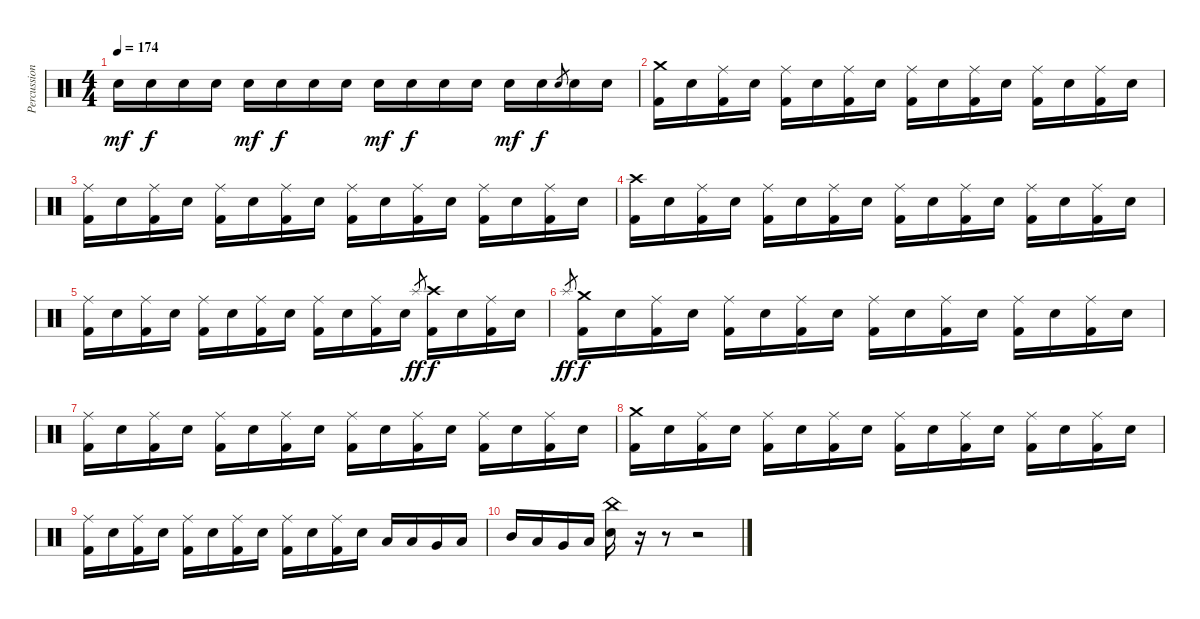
\track ("Percussion" "Percussion") {instrument percussion}
\staff {score}
\articulation defaults
\ts (4 4)
\tempo 174
\clef neutral
\ks c "Electric Snare (hit)".16{dy mf} "Electric Snare (hit)".16{dy f} "Electric Snare (hit)".16 "Electric Snare (hit)".16 "Electric Snare (hit)".16{dy mf} "Electric Snare (hit)".16{dy f} "Electric Snare (hit)".16 "Electric Snare (hit)".16 "Electric Snare (hit)".16{dy mf} "Electric Snare (hit)".16{dy f} "Electric Snare (hit)".16 "Electric Snare (hit)".16 "Electric Snare (hit)".16{dy mf} "Electric Snare (hit)".16{dy f} "Electric Snare (hit)".8{gr} "Electric Snare (hit)".16 "Electric Snare (hit)".16
|
("Crash medium (hit)" "Kick (hit) 2").16 "Electric Snare (hit)".16 ("Ride (middle)" "Kick (hit) 2").16 "Electric Snare (hit)".16 ("Ride (middle)" "Kick (hit) 2").16 "Electric Snare (hit)".16 ("Ride (middle)" "Kick (hit) 2").16 "Electric Snare (hit)".16 ("Ride (middle)" "Kick (hit) 2").16 "Electric Snare (hit)".16 ("Ride (middle)" "Kick (hit) 2").16 "Electric Snare (hit)".16 ("Ride (middle)" "Kick (hit) 2").16 "Electric Snare (hit)".16 ("Ride (middle)" "Kick (hit) 2").16 "Electric Snare (hit)".16 |
("Ride (middle)" "Kick (hit) 2").16 "Electric Snare (hit)".16 ("Ride (middle)" "Kick (hit) 2").16 "Electric Snare (hit)".16 ("Ride (middle)" "Kick (hit) 2").16 "Electric Snare (hit)".16 ("Ride (middle)" "Kick (hit) 2").16 "Electric Snare (hit)".16 ("Ride (middle)" "Kick (hit) 2").16 "Electric Snare (hit)".16 ("Ride (middle)" "Kick (hit) 2").16 "Electric Snare (hit)".16 ("Ride (middle)" "Kick (hit) 2").16 "Electric Snare (hit)".16 ("Ride (middle)" "Kick (hit) 2").16 "Electric Snare (hit)".16 |
("Crash high (hit)" "Kick (hit) 2").16 "Electric Snare (hit)".16 ("Ride (middle)" "Kick (hit) 2").16 "Electric Snare (hit)".16 ("Ride (middle)" "Kick (hit) 2").16 "Electric Snare (hit)".16 ("Ride (middle)" "Kick (hit) 2").16 "Electric Snare (hit)".16 ("Ride (middle)" "Kick (hit) 2").16 "Electric Snare (hit)".16 ("Ride (middle)" "Kick (hit) 2").16 "Electric Snare (hit)".16 ("Ride (middle)" "Kick (hit) 2").16 "Electric Snare (hit)".16 ("Ride (middle)" "Kick (hit) 2").16 "Electric Snare (hit)".16 |
("Ride (middle)" "Kick (hit) 2").16 "Electric Snare (hit)".16 ("Ride (middle)" "Kick (hit) 2").16 "Electric Snare (hit)".16 ("Ride (middle)" "Kick (hit) 2").16 "Electric Snare (hit)".16 ("Ride (middle)" "Kick (hit) 2").16 "Electric Snare (hit)".16 ("Ride (middle)" "Kick (hit) 2").16 "Electric Snare (hit)".16 ("Ride (middle)" "Kick (hit) 2").16 "Electric Snare (hit)".16 "Splash (hit)".8{gr dy ff} ("Crash high (hit)" "Kick (hit) 2").16{dy f} "Electric Snare (hit)".16 ("Ride (middle)" "Kick (hit) 2").16 "Electric Snare (hit)".16 |
"Splash (hit)".8{gr dy ff} ("Crash medium (hit)" "Kick (hit) 2").16{dy f} "Electric Snare (hit)".16 ("Ride (middle)" "Kick (hit) 2").16 "Electric Snare (hit)".16 ("Ride (middle)" "Kick (hit) 2").16 "Electric Snare (hit)".16 ("Ride (middle)" "Kick (hit) 2").16 "Electric Snare (hit)".16 ("Ride (middle)" "Kick (hit) 2").16 "Electric Snare (hit)".16 ("Ride (middle)" "Kick (hit) 2").16 "Electric Snare (hit)".16 ("Ride (middle)" "Kick (hit) 2").16 "Electric Snare (hit)".16 ("Ride (middle)" "Kick (hit) 2").16 "Electric Snare (hit)".16 |
("Ride (middle)" "Kick (hit) 2").16 "Electric Snare (hit)".16 ("Ride (middle)" "Kick (hit) 2").16 "Electric Snare (hit)".16 ("Ride (middle)" "Kick (hit) 2").16 "Electric Snare (hit)".16 ("Ride (middle)" "Kick (hit) 2").16 "Electric Snare (hit)".16 ("Ride (middle)" "Kick (hit) 2").16 "Electric Snare (hit)".16 ("Ride (middle)" "Kick (hit) 2").16 "Electric Snare (hit)".16 ("Ride (middle)" "Kick (hit) 2").16 "Electric Snare (hit)".16 ("Ride (middle)" "Kick (hit) 2").16 "Electric Snare (hit)".16 |
("Crash medium (hit)" "Kick (hit) 2").16 "Electric Snare (hit)".16 ("Ride (middle)" "Kick (hit) 2").16 "Electric Snare (hit)".16 ("Ride (middle)" "Kick (hit) 2").16 "Electric Snare (hit)".16 ("Ride (middle)" "Kick (hit) 2").16 "Electric Snare (hit)".16 ("Ride (middle)" "Kick (hit) 2").16 "Electric Snare (hit)".16 ("Ride (middle)" "Kick (hit) 2").16 "Electric Snare (hit)".16 ("Ride (middle)" "Kick (hit) 2").16 "Electric Snare (hit)".16 ("Ride (middle)" "Kick (hit) 2").16 "Electric Snare (hit)".16 |
("Ride (middle)" "Kick (hit) 2").16 "Electric Snare (hit)".16 ("Ride (middle)" "Kick (hit) 2").16 "Electric Snare (hit)".16 ("Ride (middle)" "Kick (hit) 2").16 "Electric Snare (hit)".16 ("Ride (middle)" "Kick (hit) 2").16 "Electric Snare (hit)".16 ("Ride (middle)" "Kick (hit) 2").16 "Electric Snare (hit)".16 ("Ride (middle)" "Kick (hit) 2").16 "Electric Snare (hit)".16 "Low Tom (hit)".16 "Low Tom (hit)".16 "Very Low Tom (hit)".16 "Low Floor Tom (hit)".16 |
"Mid Tom (hit)".16 "Low Tom (hit)".16 "Very Low Tom (hit)".16 "Low Floor Tom (hit)".16 ("China (hit)" "Electric Snare (hit)").16 r.16 r.8 r.2
